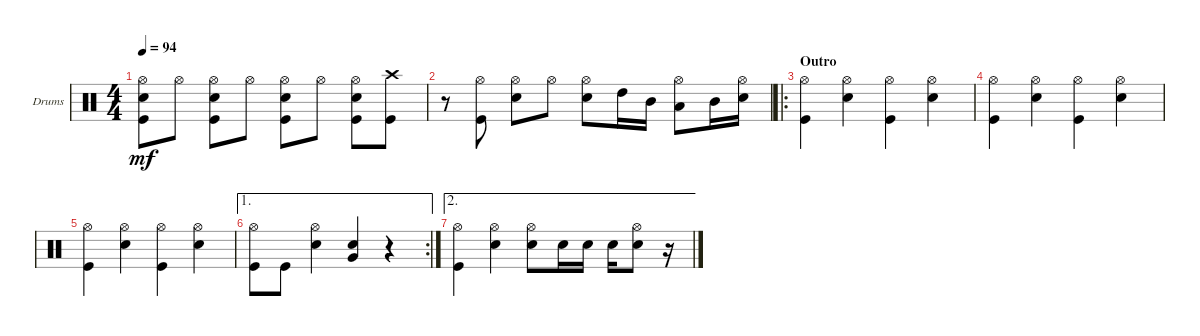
\defaultSystemsLayout 4
\bracketExtendMode groupsimilarinstruments
\firstSystemTrackNameOrientation horizontal
\otherSystemsTrackNameOrientation horizontal
\track ("Drumkit" "Drums") {instrument percussion}
\staff {score}
\articulation defaults
\ts (4 4)
\tempo 94
\clef neutral
\ks c
("Snare (hit) 2" "Hi-Hat (open)" "Kick (hit)").8{dy mf} "Hi-Hat (open)".8 ("Snare (hit) 2" "Hi-Hat (open)" "Kick (hit)").8 "Hi-Hat (open)".8 ("Snare (hit) 2" "Hi-Hat (open)" "Kick (hit)").8 "Hi-Hat (open)".8 ("Snare (hit) 2" "Hi-Hat (open)" "Kick (hit)").8 ("Kick (hit)" "Crash high (hit)").8 |
r.8 ("Hi-Hat (open)" "Kick (hit)").8 ("Snare (hit) 2" "Hi-Hat (open)").8 "Hi-Hat (open)".8 ("Snare (hit) 2" "Hi-Hat (open)").8 "High Tom (hit)".16 "Mid Tom (hit)".16 ("Hi-Hat (open)" "Low Tom (hit)").8 "Mid Tom (hit)".16 ("Hi-Hat (open)" "Snare (hit) 2").16 |
\ro
\section ("" "Outro")
("Kick (hit)" "Hi-Hat (open)").4 ("Snare (hit) 2" "Hi-Hat (open)").4 ("Kick (hit)" "Hi-Hat (open)").4 ("Snare (hit) 2" "Hi-Hat (open)").4 |
("Kick (hit)" "Hi-Hat (open)").4 ("Snare (hit) 2" "Hi-Hat (open)").4 ("Kick (hit)" "Hi-Hat (open)").4 ("Snare (hit) 2" "Hi-Hat (open)").4 |
("Kick (hit)" "Hi-Hat (open)").4 ("Snare (hit) 2" "Hi-Hat (open)").4 ("Kick (hit)" "Hi-Hat (open)").4 ("Snare (hit) 2" "Hi-Hat (open)").4 |
\ae 1
\rc 2
("Kick (hit)" "Hi-Hat (open)").8 "Kick (hit)".8 ("Snare (hit) 2" "Hi-Hat (open)").4 ("Snare (hit) 2" "Very Low Tom (hit)").4 r.4 |
\ae 2
("Kick (hit)" "Hi-Hat (open)").4 ("Snare (hit) 2" "Hi-Hat (open)").4 ("Snare (hit) 2" "Hi-Hat (open)").8 "Snare (hit) 2".16 "Snare (hit) 2".16 "Snare (hit) 2".16 ("Snare (hit) 2" "Hi-Hat (open)").8 r.16
